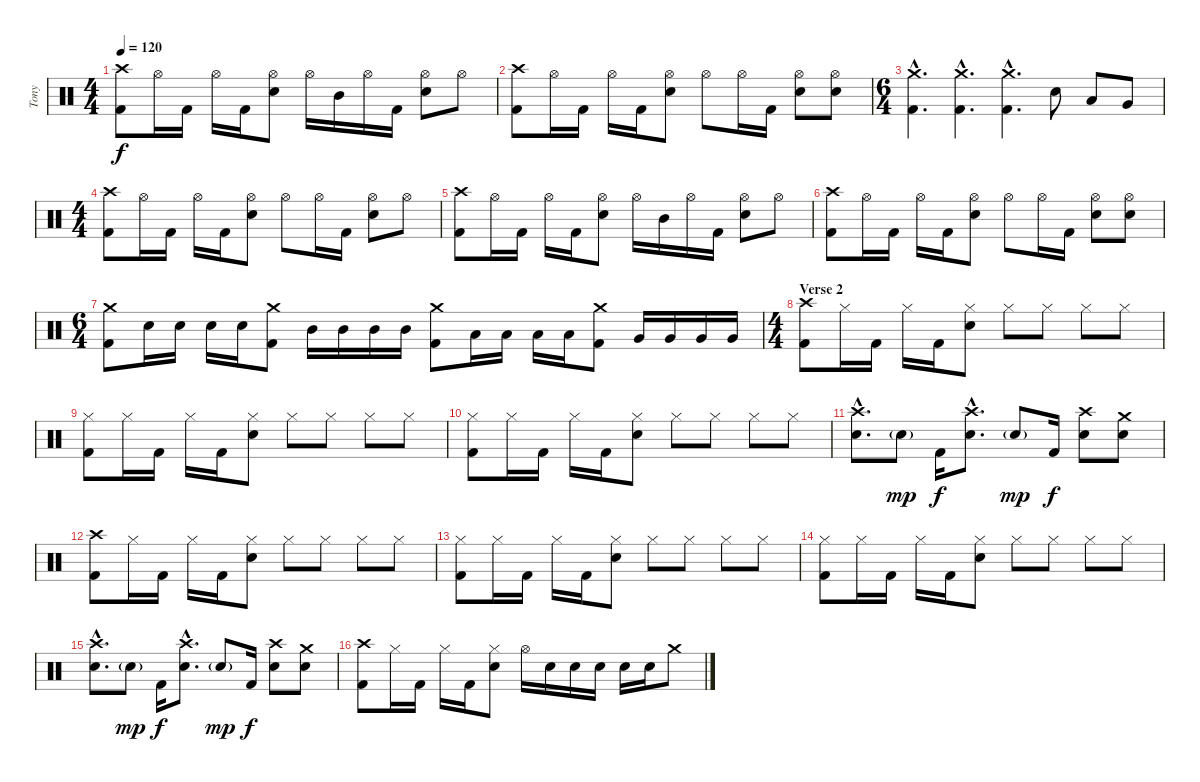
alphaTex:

\track ("Tony" "Tony") {instrument percussion}
\staff {score}
\articulation defaults
\ts (4 4)
\tempo 120
\clef neutral
\ks c
("Crash high (hit)" "Kick (hit) 2").8{dy f} "Hi-Hat (open)".16 "Kick (hit) 2".16 "Hi-Hat (open)".16 "Kick (hit) 2".16 ("Hi-Hat (open)" "Snare (hit) 2").8 "Hi-Hat (open)".16 "Mid Tom (hit)".16 "Hi-Hat (open)".16 "Kick (hit) 2".16 ("Hi-Hat (open)" "Snare (hit) 2").8 "Hi-Hat (open)".8 |
("Crash high (hit)" "Kick (hit) 2").8 "Hi-Hat (open)".16 "Kick (hit) 2".16 "Hi-Hat (open)".16 "Kick (hit) 2".16 ("Hi-Hat (open)" "Snare (hit) 2").8 "Hi-Hat (open)".8 "Hi-Hat (open)".16 "Kick (hit) 2".16 ("Hi-Hat (open)" "Snare (hit) 2").8 ("Hi-Hat (open)" "Snare (hit) 2").8 |
\ts (6 4)
("Crash medium (hit)"{hac} "Kick (hit) 2"{hac}).4{d} ("Crash medium (hit)"{hac} "Kick (hit) 2"{hac}).4{d} ("Crash medium (hit)"{hac} "Kick (hit) 2"{hac}).4{d} "Snare (hit) 2".8 "Low Tom (hit)".8 "Very Low Tom (hit)".8 |
\ts (4 4)
("Crash high (hit)" "Kick (hit) 2").8 "Hi-Hat (open)".16 "Kick (hit) 2".16 "Hi-Hat (open)".16 "Kick (hit) 2".16 ("Hi-Hat (open)" "Snare (hit) 2").8 "Hi-Hat (open)".8 "Hi-Hat (open)".16 "Kick (hit) 2".16 ("Hi-Hat (open)" "Snare (hit) 2").8 "Hi-Hat (open)".8 |
("Crash high (hit)" "Kick (hit) 2").8 "Hi-Hat (open)".16 "Kick (hit) 2".16 "Hi-Hat (open)".16 "Kick (hit) 2".16 ("Hi-Hat (open)" "Snare (hit) 2").8 "Hi-Hat (open)".16 "Mid Tom (hit)".16 "Hi-Hat (open)".16 "Kick (hit) 2".16 ("Hi-Hat (open)" "Snare (hit) 2").8 "Hi-Hat (open)".8 |
("Crash high (hit)" "Kick (hit) 2").8 "Hi-Hat (open)".16 "Kick (hit) 2".16 "Hi-Hat (open)".16 "Kick (hit) 2".16 ("Hi-Hat (open)" "Snare (hit) 2").8 "Hi-Hat (open)".8 "Hi-Hat (open)".16 "Kick (hit) 2".16 ("Hi-Hat (open)" "Snare (hit) 2").8 ("Hi-Hat (open)" "Snare (hit) 2").8 |
\ts (6 4)
("Crash medium (hit)" "Kick (hit) 2").8 "Snare (hit) 2".16 "Snare (hit) 2".16 "Snare (hit) 2".16 "Snare (hit) 2".16 ("Crash medium (hit)" "Kick (hit) 2").8 "Mid Tom (hit)".16 "Mid Tom (hit)".16 "Mid Tom (hit)".16 "Mid Tom (hit)".16 ("Crash medium (hit)" "Kick (hit) 2").8 "Low Tom (hit)".16 "Low Tom (hit)".16 "Low Tom (hit)".16 "Low Tom (hit)".16 ("Crash medium (hit)" "Kick (hit) 2").8 "Very Low Tom (hit)".16 "Very Low Tom (hit)".16 "Very Low Tom (hit)".16 "Very Low Tom (hit)".16 |
\ts (4 4)
\section ("" "Verse 2")
("Crash high (hit)" "Kick (hit) 2").8 "Hi-Hat (closed)".16 "Kick (hit) 2".16 "Hi-Hat (closed)".16 "Kick (hit) 2".16 ("Hi-Hat (closed)" "Snare (hit) 2").8 "Hi-Hat (closed)".8 "Hi-Hat (closed)".8 "Hi-Hat (closed)".8 "Hi-Hat (closed)".8 |
("Hi-Hat (closed)" "Kick (hit) 2").8 "Hi-Hat (closed)".16 "Kick (hit) 2".16 "Hi-Hat (closed)".16 "Kick (hit) 2".16 ("Hi-Hat (closed)" "Snare (hit) 2").8 "Hi-Hat (closed)".8 "Hi-Hat (closed)".8 "Hi-Hat (closed)".8 "Hi-Hat (closed)".8 |
("Hi-Hat (closed)" "Kick (hit) 2").8 "Hi-Hat (closed)".16 "Kick (hit) 2".16 "Hi-Hat (closed)".16 "Kick (hit) 2".16 ("Hi-Hat (closed)" "Snare (hit) 2").8 "Hi-Hat (closed)".8 "Hi-Hat (closed)".8 "Hi-Hat (closed)".8 "Hi-Hat (closed)".8 |
("Crash high (hit)"{hac} "Snare (hit) 2"{hac}).8{d} "Snare (hit) 2"{g}.8{dy mp} "Kick (hit) 2".16{dy f} ("Crash high (hit)"{hac} "Snare (hit) 2"{hac}).8{d} "Snare (hit) 2"{g}.8{dy mp} "Kick (hit) 2".16{dy f} ("Crash high (hit)" "Snare (hit) 2").8 ("Crash medium (hit)" "Snare (hit) 2").8 |
("Crash high (hit)" "Kick (hit) 2").8 "Hi-Hat (closed)".16 "Kick (hit) 2".16 "Hi-Hat (closed)".16 "Kick (hit) 2".16 ("Hi-Hat (closed)" "Snare (hit) 2").8 "Hi-Hat (closed)".8 "Hi-Hat (closed)".8 "Hi-Hat (closed)".8 "Hi-Hat (closed)".8 |
("Hi-Hat (closed)" "Kick (hit) 2").8 "Hi-Hat (closed)".16 "Kick (hit) 2".16 "Hi-Hat (closed)".16 "Kick (hit) 2".16 ("Hi-Hat (closed)" "Snare (hit) 2").8 "Hi-Hat (closed)".8 "Hi-Hat (closed)".8 "Hi-Hat (closed)".8 "Hi-Hat (closed)".8 |
("Hi-Hat (closed)" "Kick (hit) 2").8 "Hi-Hat (closed)".16 "Kick (hit) 2".16 "Hi-Hat (closed)".16 "Kick (hit) 2".16 ("Hi-Hat (closed)" "Snare (hit) 2").8 "Hi-Hat (closed)".8 "Hi-Hat (closed)".8 "Hi-Hat (closed)".8 "Hi-Hat (closed)".8 |
("Crash high (hit)"{hac} "Snare (hit) 2"{hac}).8{d} "Snare (hit) 2"{g}.8{dy mp} "Kick (hit) 2".16{dy f} ("Crash high (hit)"{hac} "Snare (hit) 2"{hac}).8{d} "Snare (hit) 2"{g}.8{dy mp} "Kick (hit) 2".16{dy f} ("Crash high (hit)" "Snare (hit) 2").8 ("Crash medium (hit)" "Snare (hit) 2").8 |
("Crash high (hit)" "Kick (hit) 2").8 "Hi-Hat (closed)".16 "Kick (hit) 2".16 "Hi-Hat (closed)".16 "Kick (hit) 2".16 ("Hi-Hat (closed)" "Snare (hit) 2").8 "Hi-Hat (open)".16 "Snare (hit) 2".16 "Snare (hit) 2".16 "Snare (hit) 2".16 "Snare (hit) 2".16 "Snare (hit) 2".16 "Crash medium (hit)".8
